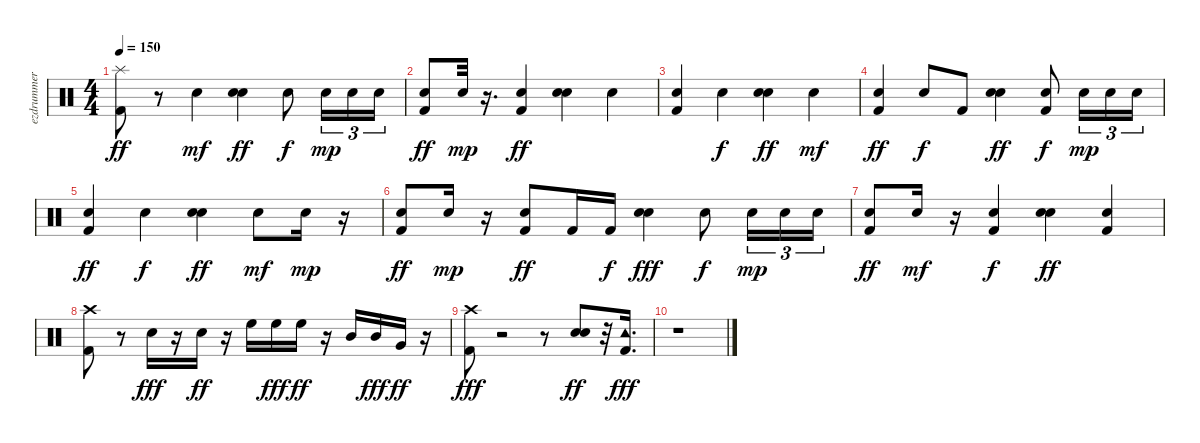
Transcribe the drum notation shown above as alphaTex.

\track ("ezdrummer 03" "ezdrummer ") {instrument percussion}
\staff {score}
\articulation defaults
\ts (4 4)
\tempo 150
\clef neutral
\ks c
("Kick (hit) 2" "Splash (hit)").8{dy ff} r.8 "Snare (hit)".4{dy mf} ("Snare (hit)" "Snare (hit) 2").4{dy ff} "Snare (hit)".8{dy f} "Snare (hit) 2".16{tu (3 2) dy mp} "Snare (hit) 2".16{tu (3 2)} "Snare (hit) 2".16{tu (3 2)} |
("Snare (hit)" "Kick (hit) 2").8{dy ff} "Snare (hit) 2".32{dy mp} r.16{d} ("Snare (hit)" "Kick (hit) 2").4{dy ff} ("Snare (hit)" "Snare (hit) 2").4 "Snare (hit)".4 |
("Snare (hit)" "Kick (hit) 2").4 "Snare (hit)".4{dy f} ("Snare (hit)" "Snare (hit) 2").4{dy ff} "Snare (hit)".4{dy mf} |
("Snare (hit)" "Kick (hit) 2").4{dy ff} "Snare (hit)".8{dy f} "Kick (hit) 2".8 ("Snare (hit)" "Snare (hit) 2").4{dy ff} ("Snare (hit)" "Kick (hit) 2").8{dy f} "Snare (hit) 2".16{tu (3 2) dy mp} "Snare (hit) 2".16{tu (3 2)} "Snare (hit) 2".16{tu (3 2)} |
("Snare (hit)" "Kick (hit) 2").4{dy ff} "Snare (hit)".4{dy f} ("Snare (hit)" "Snare (hit) 2").4{dy ff} "Snare (hit)".8{dy mf} "Snare (hit) 2".16{dy mp} r.16 |
("Snare (hit)" "Kick (hit) 2").8{dy ff} "Snare (hit) 2".16{dy mp} r.16 ("Snare (hit)" "Kick (hit) 2").8{dy ff} "Kick (hit) 2".16 "Kick (hit) 2".16{dy f} ("Snare (hit)" "Snare (hit) 2").4{dy fff} "Snare (hit)".8{dy f} "Snare (hit) 2".16{tu (3 2) dy mp} "Snare (hit) 2".16{tu (3 2)} "Snare (hit) 2".16{tu (3 2)} |
("Snare (hit)" "Kick (hit) 2").8{dy ff} "Snare (hit) 2".16{dy mf} r.16 ("Snare (hit)" "Kick (hit) 2").4{dy f} ("Snare (hit)" "Snare (hit) 2").4{dy ff} ("Snare (hit)" "Kick (hit) 2").4 |
("Kick (hit) 2" "Crash high (hit)").8 r.8 "Snare (hit) 2".16{dy fff} r.16 "Snare (hit) 2".16{dy ff} r.16 "High Floor Tom (hit)".16 "High Floor Tom (hit)".16{dy fff} "High Floor Tom (hit)".16{dy ff} r.16 "Mid Tom (hit)".16 "Mid Tom (hit)".16{dy fff} "Very Low Tom (hit)".16{dy ff} r.16 |
("Kick (hit) 2" "Crash high (hit)").8{dy fff} r.2 r.8 ("Hand Clap (hit)" "Snare (hit) 2").8{dy ff} r.32 ("Kick (hit) 2" "Tambourine (hit)").16{d dy fff} |
r.1
